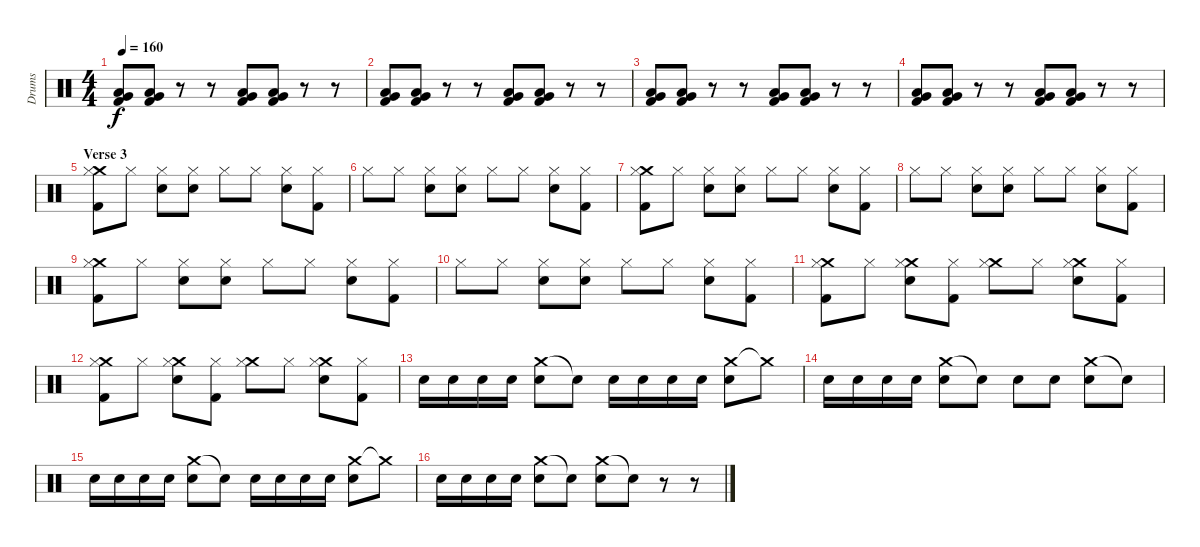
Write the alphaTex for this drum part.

\track ("Drums" "Drums") {instrument percussion}
\staff {score}
\articulation defaults
\ts (4 4)
\tempo 160
\clef neutral
\ks c
("Very Low Tom (hit)" "Low Floor Tom (hit)" "Kick (hit) 2").8{dy f} ("Very Low Tom (hit)" "Low Floor Tom (hit)" "Kick (hit) 2").8 r.8 r.8 ("Very Low Tom (hit)" "Low Floor Tom (hit)" "Kick (hit) 2").8 ("Very Low Tom (hit)" "Low Floor Tom (hit)" "Kick (hit) 2").8 r.8 r.8 |
("Very Low Tom (hit)" "Low Floor Tom (hit)" "Kick (hit) 2").8 ("Very Low Tom (hit)" "Low Floor Tom (hit)" "Kick (hit) 2").8 r.8 r.8 ("Very Low Tom (hit)" "Low Floor Tom (hit)" "Kick (hit) 2").8 ("Very Low Tom (hit)" "Low Floor Tom (hit)" "Kick (hit) 2").8 r.8 r.8 |
("Very Low Tom (hit)" "Low Floor Tom (hit)" "Kick (hit) 2").8 ("Very Low Tom (hit)" "Low Floor Tom (hit)" "Kick (hit) 2").8 r.8 r.8 ("Very Low Tom (hit)" "Low Floor Tom (hit)" "Kick (hit) 2").8 ("Very Low Tom (hit)" "Low Floor Tom (hit)" "Kick (hit) 2").8 r.8 r.8 |
("Very Low Tom (hit)" "Low Floor Tom (hit)" "Kick (hit) 2").8 ("Very Low Tom (hit)" "Low Floor Tom (hit)" "Kick (hit) 2").8 r.8 r.8 ("Very Low Tom (hit)" "Low Floor Tom (hit)" "Kick (hit) 2").8 ("Very Low Tom (hit)" "Low Floor Tom (hit)" "Kick (hit) 2").8 r.8 r.8 |
\section ("" "Verse 3")
("Crash medium (hit)" "Hi-Hat (closed)" "Kick (hit) 2").8 "Hi-Hat (closed)".8 ("Hi-Hat (closed)" "Snare (hit) 2").8 ("Hi-Hat (closed)" "Snare (hit) 2").8 "Hi-Hat (closed)".8 "Hi-Hat (closed)".8 ("Hi-Hat (closed)" "Snare (hit) 2").8 ("Hi-Hat (closed)" "Kick (hit) 2").8 |
"Hi-Hat (closed)".8 "Hi-Hat (closed)".8 ("Hi-Hat (closed)" "Snare (hit) 2").8 ("Hi-Hat (closed)" "Snare (hit) 2").8 "Hi-Hat (closed)".8 "Hi-Hat (closed)".8 ("Hi-Hat (closed)" "Snare (hit) 2").8 ("Hi-Hat (closed)" "Kick (hit) 2").8 |
("Crash medium (hit)" "Hi-Hat (closed)" "Kick (hit) 2").8 "Hi-Hat (closed)".8 ("Hi-Hat (closed)" "Snare (hit) 2").8 ("Hi-Hat (closed)" "Snare (hit) 2").8 "Hi-Hat (closed)".8 "Hi-Hat (closed)".8 ("Hi-Hat (closed)" "Snare (hit) 2").8 ("Hi-Hat (closed)" "Kick (hit) 2").8 |
"Hi-Hat (closed)".8 "Hi-Hat (closed)".8 ("Hi-Hat (closed)" "Snare (hit) 2").8 ("Hi-Hat (closed)" "Snare (hit) 2").8 "Hi-Hat (closed)".8 "Hi-Hat (closed)".8 ("Hi-Hat (closed)" "Snare (hit) 2").8 ("Hi-Hat (closed)" "Kick (hit) 2").8 |
("Crash medium (hit)" "Hi-Hat (closed)" "Kick (hit) 2").8 "Hi-Hat (closed)".8 ("Hi-Hat (closed)" "Snare (hit) 2").8 ("Hi-Hat (closed)" "Snare (hit) 2").8 "Hi-Hat (closed)".8 "Hi-Hat (closed)".8 ("Hi-Hat (closed)" "Snare (hit) 2").8 ("Hi-Hat (closed)" "Kick (hit) 2").8 |
"Hi-Hat (closed)".8 "Hi-Hat (closed)".8 ("Hi-Hat (closed)" "Snare (hit) 2").8 ("Hi-Hat (closed)" "Snare (hit) 2").8 "Hi-Hat (closed)".8 "Hi-Hat (closed)".8 ("Hi-Hat (closed)" "Snare (hit) 2").8 ("Hi-Hat (closed)" "Kick (hit) 2").8 |
("Crash medium (hit)" "Hi-Hat (closed)" "Kick (hit) 2").8 "Hi-Hat (closed)".8 ("Crash medium (hit)" "Hi-Hat (closed)" "Snare (hit) 2").8 ("Hi-Hat (closed)" "Kick (hit) 2").8 ("Crash medium (hit)" "Hi-Hat (closed)").8 "Hi-Hat (closed)".8 ("Crash medium (hit)" "Hi-Hat (closed)" "Snare (hit) 2").8 ("Hi-Hat (closed)" "Kick (hit) 2").8 |
("Crash medium (hit)" "Hi-Hat (closed)" "Kick (hit) 2").8 "Hi-Hat (closed)".8 ("Crash medium (hit)" "Hi-Hat (closed)" "Snare (hit) 2").8 ("Hi-Hat (closed)" "Kick (hit) 2").8 ("Crash medium (hit)" "Hi-Hat (closed)").8 "Hi-Hat (closed)".8 ("Crash medium (hit)" "Hi-Hat (closed)" "Snare (hit) 2").8 ("Hi-Hat (closed)" "Kick (hit) 2").8 |
"Snare (hit) 2".16 "Snare (hit) 2".16 "Snare (hit) 2".16 "Snare (hit) 2".16 ("Crash medium (hit)" "Snare (hit) 2").8 "Snare (hit)"{t}.8 "Snare (hit) 2".16 "Snare (hit) 2".16 "Snare (hit) 2".16 "Snare (hit) 2".16 ("Crash medium (hit)" "Snare (hit) 2").8 "Crash medium (hit)"{t}.8 |
"Snare (hit) 2".16 "Snare (hit) 2".16 "Snare (hit) 2".16 "Snare (hit) 2".16 ("Crash medium (hit)" "Snare (hit) 2").8 "Snare (hit)"{t}.8 "Snare (hit) 2".8 "Snare (hit) 2".8 ("Crash medium (hit)" "Snare (hit) 2").8 "Snare (hit)"{t}.8 |
"Snare (hit) 2".16 "Snare (hit) 2".16 "Snare (hit) 2".16 "Snare (hit) 2".16 ("Crash medium (hit)" "Snare (hit) 2").8 "Snare (hit)"{t}.8 "Snare (hit) 2".16 "Snare (hit) 2".16 "Snare (hit) 2".16 "Snare (hit) 2".16 ("Crash medium (hit)" "Snare (hit) 2").8 "Crash medium (hit)"{t}.8 |
"Snare (hit) 2".16 "Snare (hit) 2".16 "Snare (hit) 2".16 "Snare (hit) 2".16 ("Crash medium (hit)" "Snare (hit) 2").8 "Snare (hit)"{t}.8 ("Crash medium (hit)" "Snare (hit) 2").8 "Snare (hit)"{t}.8 r.8 r.8
